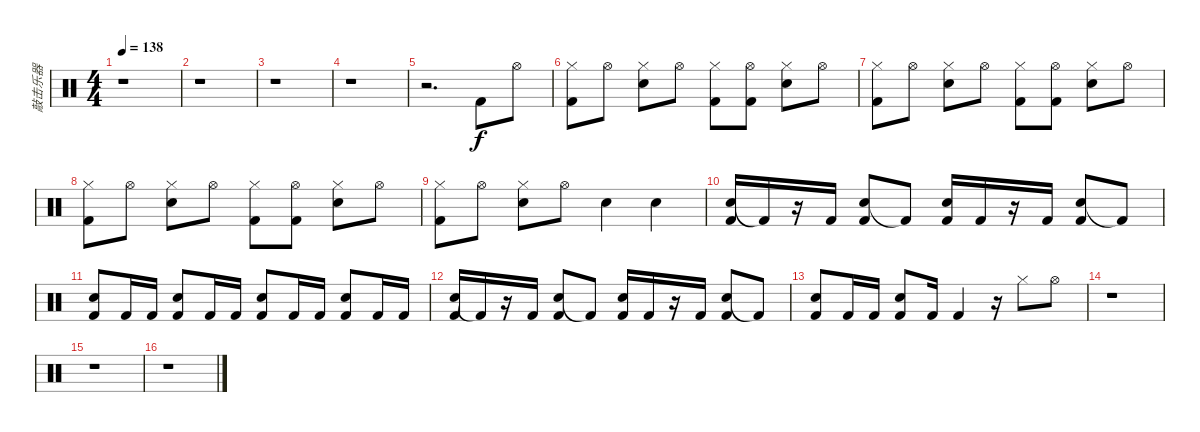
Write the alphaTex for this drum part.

\track ("敲击乐器" "敲击乐器") {instrument percussion}
\staff {score}
\articulation defaults
\ts (4 4)
\tempo 138
\clef neutral
\ks c
r.1{dy f} |
r.1 |
r.1 |
r.1 |
r.2{d} "Kick (hit) 2".8 "Hi-Hat (open)".8 |
("Hi-Hat (closed)" "Kick (hit) 2").8 "Hi-Hat (open)".8 ("Hi-Hat (closed)" "Electric Snare (hit)").8 "Hi-Hat (open)".8 ("Hi-Hat (closed)" "Kick (hit) 2").8 ("Hi-Hat (open)" "Kick (hit) 2").8 ("Hi-Hat (closed)" "Electric Snare (hit)").8 "Hi-Hat (open)".8 |
("Hi-Hat (closed)" "Kick (hit) 2").8 "Hi-Hat (open)".8 ("Hi-Hat (closed)" "Electric Snare (hit)").8 "Hi-Hat (open)".8 ("Hi-Hat (closed)" "Kick (hit) 2").8 ("Hi-Hat (open)" "Kick (hit) 2").8 ("Hi-Hat (closed)" "Electric Snare (hit)").8 "Hi-Hat (open)".8 |
("Hi-Hat (closed)" "Kick (hit) 2").8 "Hi-Hat (open)".8 ("Hi-Hat (closed)" "Electric Snare (hit)").8 "Hi-Hat (open)".8 ("Hi-Hat (closed)" "Kick (hit) 2").8 ("Hi-Hat (open)" "Kick (hit) 2").8 ("Hi-Hat (closed)" "Electric Snare (hit)").8 "Hi-Hat (open)".8 |
("Hi-Hat (closed)" "Kick (hit) 2").8 "Hi-Hat (open)".8 ("Hi-Hat (closed)" "Electric Snare (hit)").8 "Hi-Hat (open)".8 "Electric Snare (hit)".4 "Electric Snare (hit)".4 |
("Electric Snare (hit)" "Kick (hit) 2").16 "Kick (hit) 2"{t}.16 r.16 "Kick (hit) 2".16 ("Electric Snare (hit)" "Kick (hit) 2").8 "Kick (hit) 2"{t}.8 ("Electric Snare (hit)" "Kick (hit) 2").16 "Kick (hit) 2".16 r.16 "Kick (hit) 2".16 ("Electric Snare (hit)" "Kick (hit) 2").8 "Kick (hit) 2"{t}.8 |
("Electric Snare (hit)" "Kick (hit) 2").8 "Kick (hit) 2".16 "Kick (hit) 2".16 ("Electric Snare (hit)" "Kick (hit) 2").8 "Kick (hit) 2".16 "Kick (hit) 2".16 ("Electric Snare (hit)" "Kick (hit) 2").8 "Kick (hit) 2".16 "Kick (hit) 2".16 ("Electric Snare (hit)" "Kick (hit) 2").8 "Kick (hit) 2".16 "Kick (hit) 2".16 |
("Electric Snare (hit)" "Kick (hit) 2").16 "Kick (hit) 2"{t}.16 r.16 "Kick (hit) 2".16 ("Electric Snare (hit)" "Kick (hit) 2").8 "Kick (hit) 2"{t}.8 ("Electric Snare (hit)" "Kick (hit) 2").16 "Kick (hit) 2".16 r.16 "Kick (hit) 2".16 ("Electric Snare (hit)" "Kick (hit) 2").8 "Kick (hit) 2"{t}.8 |
("Electric Snare (hit)" "Kick (hit) 2").8 "Kick (hit) 2".16 "Kick (hit) 2".16 ("Electric Snare (hit)" "Kick (hit) 2").8 "Kick (hit) 2".16 "Kick (hit) 2".4 r.16 "Hi-Hat (closed)".8 "Hi-Hat (open)".8 |
r.1 |
r.1 |
r.1
